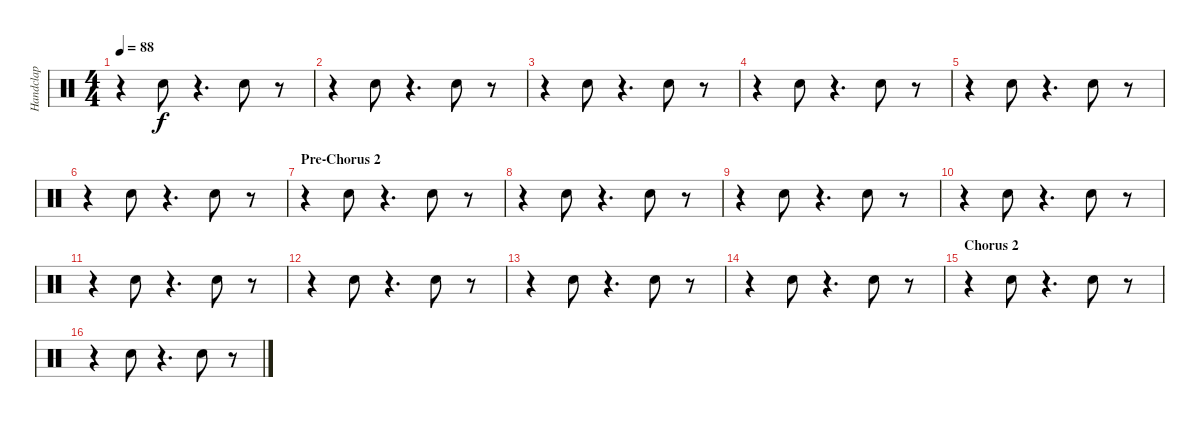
\track ("Handclap" "Handclap") {instrument percussion}
\staff {score}
\articulation defaults
\ts (4 4)
\tempo 88
\clef neutral
\ks c
r.4{dy f} "Hand Clap (hit)".8 r.4{d} "Hand Clap (hit)".8 r.8 |
r.4 "Hand Clap (hit)".8 r.4{d} "Hand Clap (hit)".8 r.8 |
r.4 "Hand Clap (hit)".8 r.4{d} "Hand Clap (hit)".8 r.8 |
r.4 "Hand Clap (hit)".8 r.4{d} "Hand Clap (hit)".8 r.8 |
r.4 "Hand Clap (hit)".8 r.4{d} "Hand Clap (hit)".8 r.8 |
r.4 "Hand Clap (hit)".8 r.4{d} "Hand Clap (hit)".8 r.8 |
\section ("" "Pre-Chorus 2")
r.4 "Hand Clap (hit)".8 r.4{d} "Hand Clap (hit)".8 r.8 |
r.4 "Hand Clap (hit)".8 r.4{d} "Hand Clap (hit)".8 r.8 |
r.4 "Hand Clap (hit)".8 r.4{d} "Hand Clap (hit)".8 r.8 |
r.4 "Hand Clap (hit)".8 r.4{d} "Hand Clap (hit)".8 r.8 |
r.4 "Hand Clap (hit)".8 r.4{d} "Hand Clap (hit)".8 r.8 |
r.4 "Hand Clap (hit)".8 r.4{d} "Hand Clap (hit)".8 r.8 |
r.4 "Hand Clap (hit)".8 r.4{d} "Hand Clap (hit)".8 r.8 |
r.4 "Hand Clap (hit)".8 r.4{d} "Hand Clap (hit)".8 r.8 |
\section ("" "Chorus 2")
r.4 "Hand Clap (hit)".8 r.4{d} "Hand Clap (hit)".8 r.8 |
r.4 "Hand Clap (hit)".8 r.4{d} "Hand Clap (hit)".8 r.8
